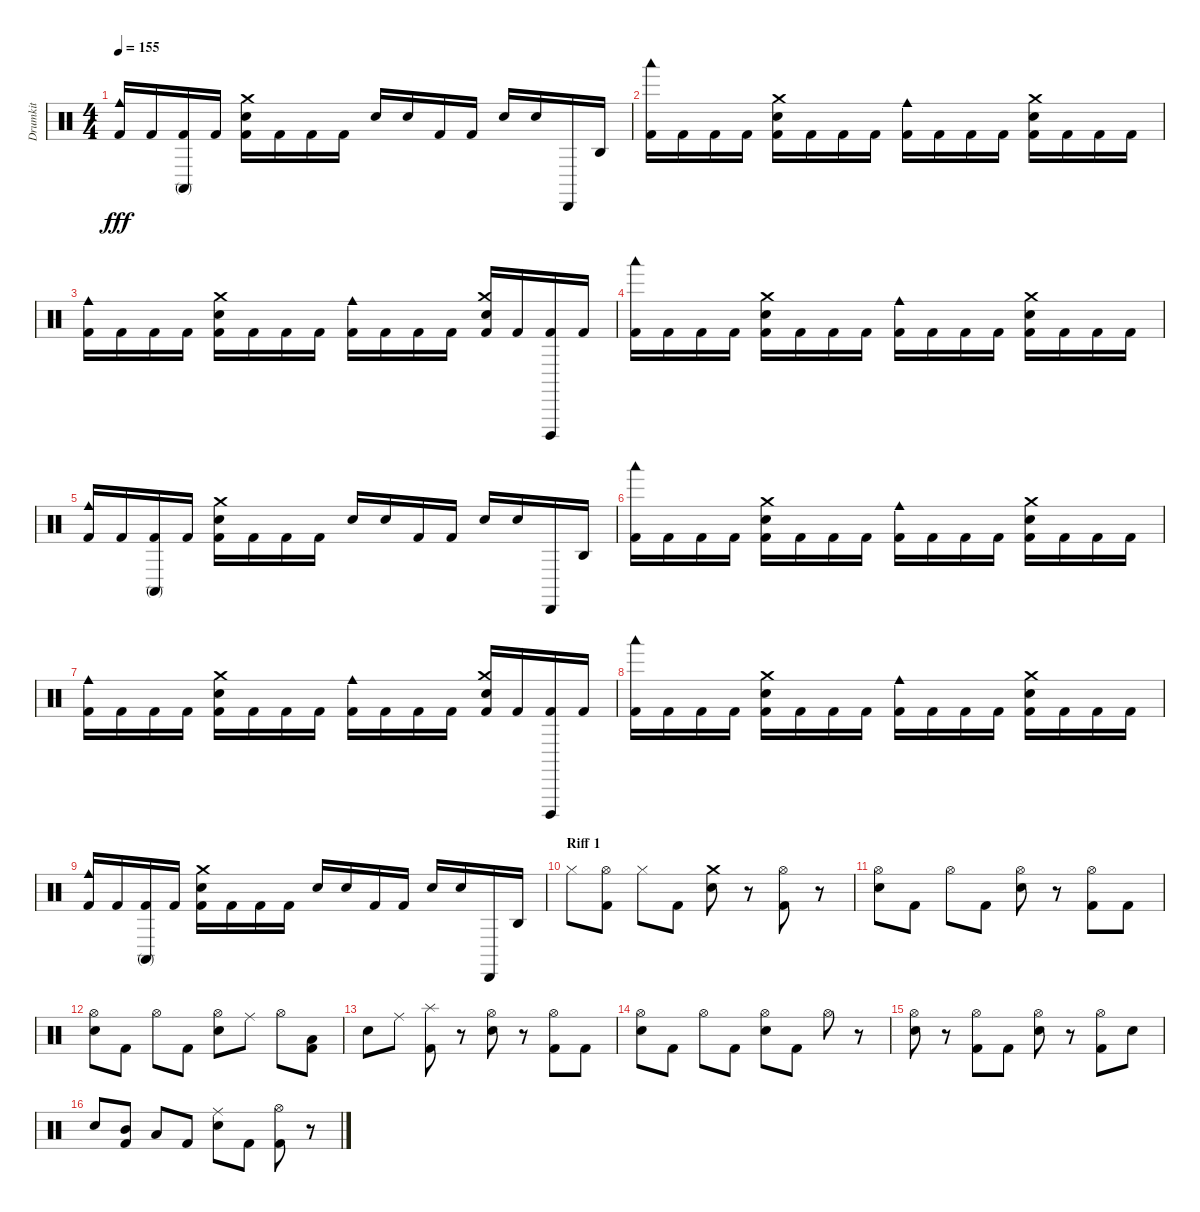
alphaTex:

\track ("Drumkit" "Drumkit") {instrument percussion}
\staff {score}
\articulation defaults
\ts (4 4)
\tempo 155
\clef neutral
\ks c
("Kick (hit) 2" "Cowbell medium (hit)").16{dy fff} "Kick (hit) 2".16 ("Kick (hit) 2" "Conga high (mute)").16 "Kick (hit) 2".16 ("Kick (hit) 2" "Snare (hit) 2" "Crash medium (hit)").16 "Kick (hit) 2".16 "Kick (hit) 2".16 "Kick (hit) 2".16 "Snare (hit) 2".16 "Hand Clap (hit)".16 "Kick (hit) 2".16 "Kick (hit) 2".16 "Snare (hit) 2".16 "Hand Clap (hit)".16 "Cabasa (hit)".16 "Agogo high (hit)".16 |
("Kick (hit) 2" "Woodblock low (hit)").16 "Kick (hit) 2".16 "Kick (hit) 2".16 "Kick (hit) 2".16 ("Kick (hit) 2" "Snare (hit) 2" "Crash medium (hit)").16 "Kick (hit) 2".16 "Kick (hit) 2".16 "Kick (hit) 2".16 ("Kick (hit) 2" "Cowbell medium (hit)").16 "Kick (hit) 2".16 "Kick (hit) 2".16 "Kick (hit) 2".16 ("Kick (hit) 2" "Snare (hit) 2" "Crash medium (hit)").16 "Kick (hit) 2".16 "Kick (hit) 2".16 "Kick (hit) 2".16 |
("Kick (hit) 2" "Cowbell medium (hit)").16 "Kick (hit) 2".16 "Kick (hit) 2".16 "Kick (hit) 2".16 ("Kick (hit) 2" "Snare (hit) 2" "Crash medium (hit)").16 "Kick (hit) 2".16 "Kick (hit) 2".16 "Kick (hit) 2".16 ("Kick (hit) 2" "Cowbell medium (hit)").16 "Kick (hit) 2".16 "Kick (hit) 2".16 "Kick (hit) 2".16 ("Kick (hit) 2" "Snare (hit) 2" "Crash medium (hit)").16 "Kick (hit) 2".16 ("Kick (hit) 2" "Cuica (open)").16 "Kick (hit) 2".16 |
("Kick (hit) 2" "Woodblock low (hit)").16 "Kick (hit) 2".16 "Kick (hit) 2".16 "Kick (hit) 2".16 ("Kick (hit) 2" "Snare (hit) 2" "Crash medium (hit)").16 "Kick (hit) 2".16 "Kick (hit) 2".16 "Kick (hit) 2".16 ("Kick (hit) 2" "Cowbell medium (hit)").16 "Kick (hit) 2".16 "Kick (hit) 2".16 "Kick (hit) 2".16 ("Kick (hit) 2" "Snare (hit) 2" "Crash medium (hit)").16 "Kick (hit) 2".16 "Kick (hit) 2".16 "Kick (hit) 2".16 |
("Kick (hit) 2" "Cowbell medium (hit)").16 "Kick (hit) 2".16 ("Kick (hit) 2" "Conga high (mute)").16 "Kick (hit) 2".16 ("Kick (hit) 2" "Snare (hit) 2" "Crash medium (hit)").16 "Kick (hit) 2".16 "Kick (hit) 2".16 "Kick (hit) 2".16 "Snare (hit) 2".16 "Hand Clap (hit)".16 "Kick (hit) 2".16 "Kick (hit) 2".16 "Snare (hit) 2".16 "Hand Clap (hit)".16 "Cabasa (hit)".16 "Agogo high (hit)".16 |
("Kick (hit) 2" "Woodblock low (hit)").16 "Kick (hit) 2".16 "Kick (hit) 2".16 "Kick (hit) 2".16 ("Kick (hit) 2" "Snare (hit) 2" "Crash medium (hit)").16 "Kick (hit) 2".16 "Kick (hit) 2".16 "Kick (hit) 2".16 ("Kick (hit) 2" "Cowbell medium (hit)").16 "Kick (hit) 2".16 "Kick (hit) 2".16 "Kick (hit) 2".16 ("Kick (hit) 2" "Snare (hit) 2" "Crash medium (hit)").16 "Kick (hit) 2".16 "Kick (hit) 2".16 "Kick (hit) 2".16 |
("Kick (hit) 2" "Cowbell medium (hit)").16 "Kick (hit) 2".16 "Kick (hit) 2".16 "Kick (hit) 2".16 ("Kick (hit) 2" "Snare (hit) 2" "Crash medium (hit)").16 "Kick (hit) 2".16 "Kick (hit) 2".16 "Kick (hit) 2".16 ("Kick (hit) 2" "Cowbell medium (hit)").16 "Kick (hit) 2".16 "Kick (hit) 2".16 "Kick (hit) 2".16 ("Kick (hit) 2" "Snare (hit) 2" "Crash medium (hit)").16 "Kick (hit) 2".16 ("Kick (hit) 2" "Cuica (open)").16 "Kick (hit) 2".16 |
("Kick (hit) 2" "Woodblock low (hit)").16 "Kick (hit) 2".16 "Kick (hit) 2".16 "Kick (hit) 2".16 ("Kick (hit) 2" "Snare (hit) 2" "Crash medium (hit)").16 "Kick (hit) 2".16 "Kick (hit) 2".16 "Kick (hit) 2".16 ("Kick (hit) 2" "Cowbell medium (hit)").16 "Kick (hit) 2".16 "Kick (hit) 2".16 "Kick (hit) 2".16 ("Kick (hit) 2" "Snare (hit) 2" "Crash medium (hit)").16 "Kick (hit) 2".16 "Kick (hit) 2".16 "Kick (hit) 2".16 |
("Kick (hit) 2" "Cowbell medium (hit)").16 "Kick (hit) 2".16 ("Kick (hit) 2" "Conga high (mute)").16 "Kick (hit) 2".16 ("Kick (hit) 2" "Snare (hit) 2" "Crash medium (hit)").16 "Kick (hit) 2".16 "Kick (hit) 2".16 "Kick (hit) 2".16 "Snare (hit) 2".16 "Hand Clap (hit)".16 "Kick (hit) 2".16 "Kick (hit) 2".16 "Snare (hit) 2".16 "Hand Clap (hit)".16 "Cabasa (hit)".16 "Agogo high (hit)".16 |
\section ("" "Riff 1")
"Hi-Hat (closed)".8 ("Kick (hit) 2" "Hi-Hat (open)").8 "Hi-Hat (closed)".8 "Kick (hit) 2".8 ("Snare (hit) 2" "Crash medium (hit)").8 r.8 ("Kick (hit) 2" "Hi-Hat (open)").8 r.8 |
("Snare (hit) 2" "Hi-Hat (open)").8 "Kick (hit) 2".8 "Hi-Hat (open)".8 "Kick (hit) 2".8 ("Snare (hit) 2" "Hi-Hat (open)").8 r.8 ("Kick (hit) 2" "Hi-Hat (open)").8 "Kick (hit) 2".8 |
("Snare (hit) 2" "Hi-Hat (open)").8 "Kick (hit) 2".8 "Hi-Hat (open)".8 "Kick (hit) 2".8 ("Snare (hit) 2" "Hi-Hat (open)").8 "Ride (middle)".8 "Hi-Hat (open)".8 ("Kick (hit) 2" "Low Tom (hit)").8 |
"Snare (hit) 2".8 "Ride (middle)".8 ("Kick (hit) 2" "Splash (hit)").8 r.8 ("Snare (hit) 2" "Hi-Hat (open)").8 r.8 ("Kick (hit) 2" "Hi-Hat (open)").8 "Kick (hit) 2".8 |
("Snare (hit) 2" "Hi-Hat (open)").8 "Kick (hit) 2".8 "Hi-Hat (open)".8 "Kick (hit) 2".8 ("Snare (hit) 2" "Hi-Hat (open)").8 "Kick (hit) 2".8 "Hi-Hat (open)".8 r.8 |
("Snare (hit) 2" "Hi-Hat (open)").8 r.8 ("Kick (hit) 2" "Hi-Hat (open)").8 "Kick (hit) 2".8 ("Snare (hit) 2" "Hi-Hat (open)").8 r.8 ("Kick (hit) 2" "Hi-Hat (open)").8 "Snare (hit) 2".8 |
"Snare (hit) 2".8 ("Kick (hit) 2" "Mid Tom (hit)").8 "Low Tom (hit)".8 "Kick (hit) 2".8 ("Snare (hit) 2" "Ride (middle)").8 "Kick (hit) 2".8 ("Kick (hit) 2" "Hi-Hat (open)").8 r.8
